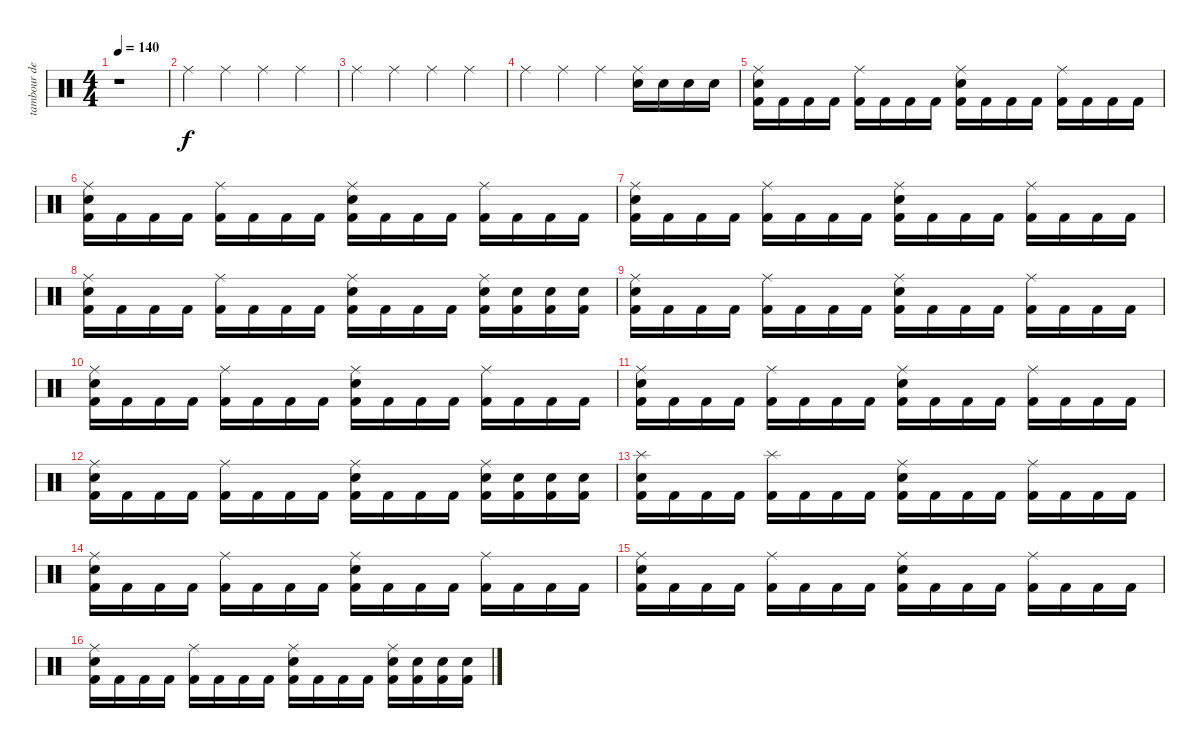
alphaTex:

\track ("tambour de guerre" "tambour de") {instrument percussion}
\staff {score}
\articulation defaults
\ts (4 4)
\tempo 140
\clef neutral
\ks c
r.1{dy f} |
"Ride (middle)".4 "Ride (middle)".4 "Ride (middle)".4 "Ride (middle)".4 |
"Ride (middle)".4 "Ride (middle)".4 "Ride (middle)".4 "Ride (middle)".4 |
"Ride (middle)".4 "Ride (middle)".4 "Ride (middle)".4 ("Snare (hit) 2" "Ride (middle)").16 "Snare (hit) 2".16 "Snare (hit) 2".16 "Snare (hit) 2".16 |
("Kick (hit) 2" "Snare (hit) 2" "Ride (middle)").16 "Kick (hit) 2".16 "Kick (hit) 2".16 "Kick (hit) 2".16 ("Kick (hit) 2" "Ride (middle)").16 "Kick (hit) 2".16 "Kick (hit) 2".16 "Kick (hit) 2".16 ("Kick (hit) 2" "Snare (hit) 2" "Ride (middle)").16 "Kick (hit) 2".16 "Kick (hit) 2".16 "Kick (hit) 2".16 ("Kick (hit) 2" "Ride (middle)").16 "Kick (hit) 2".16 "Kick (hit) 2".16 "Kick (hit) 2".16 |
("Kick (hit) 2" "Snare (hit) 2" "Ride (middle)").16 "Kick (hit) 2".16 "Kick (hit) 2".16 "Kick (hit) 2".16 ("Kick (hit) 2" "Ride (middle)").16 "Kick (hit) 2".16 "Kick (hit) 2".16 "Kick (hit) 2".16 ("Kick (hit) 2" "Snare (hit) 2" "Ride (middle)").16 "Kick (hit) 2".16 "Kick (hit) 2".16 "Kick (hit) 2".16 ("Kick (hit) 2" "Ride (middle)").16 "Kick (hit) 2".16 "Kick (hit) 2".16 "Kick (hit) 2".16 |
("Kick (hit) 2" "Snare (hit) 2" "Ride (middle)").16 "Kick (hit) 2".16 "Kick (hit) 2".16 "Kick (hit) 2".16 ("Kick (hit) 2" "Ride (middle)").16 "Kick (hit) 2".16 "Kick (hit) 2".16 "Kick (hit) 2".16 ("Kick (hit) 2" "Snare (hit) 2" "Ride (middle)").16 "Kick (hit) 2".16 "Kick (hit) 2".16 "Kick (hit) 2".16 ("Kick (hit) 2" "Ride (middle)").16 "Kick (hit) 2".16 "Kick (hit) 2".16 "Kick (hit) 2".16 |
("Kick (hit) 2" "Snare (hit) 2" "Ride (middle)").16 "Kick (hit) 2".16 "Kick (hit) 2".16 "Kick (hit) 2".16 ("Kick (hit) 2" "Ride (middle)").16 "Kick (hit) 2".16 "Kick (hit) 2".16 "Kick (hit) 2".16 ("Kick (hit) 2" "Snare (hit) 2" "Ride (middle)").16 "Kick (hit) 2".16 "Kick (hit) 2".16 "Kick (hit) 2".16 ("Kick (hit) 2" "Snare (hit) 2" "Ride (middle)").16 ("Kick (hit) 2" "Snare (hit) 2").16 ("Kick (hit) 2" "Electric Snare (hit)").16 ("Kick (hit) 2" "Electric Snare (hit)").16 |
("Kick (hit) 2" "Snare (hit) 2" "Ride (middle)").16 "Kick (hit) 2".16 "Kick (hit) 2".16 "Kick (hit) 2".16 ("Kick (hit) 2" "Ride (middle)").16 "Kick (hit) 2".16 "Kick (hit) 2".16 "Kick (hit) 2".16 ("Kick (hit) 2" "Snare (hit) 2" "Ride (middle)").16 "Kick (hit) 2".16 "Kick (hit) 2".16 "Kick (hit) 2".16 ("Kick (hit) 2" "Ride (middle)").16 "Kick (hit) 2".16 "Kick (hit) 2".16 "Kick (hit) 2".16 |
("Kick (hit) 2" "Snare (hit) 2" "Ride (middle)").16 "Kick (hit) 2".16 "Kick (hit) 2".16 "Kick (hit) 2".16 ("Kick (hit) 2" "Ride (middle)").16 "Kick (hit) 2".16 "Kick (hit) 2".16 "Kick (hit) 2".16 ("Kick (hit) 2" "Snare (hit) 2" "Ride (middle)").16 "Kick (hit) 2".16 "Kick (hit) 2".16 "Kick (hit) 2".16 ("Kick (hit) 2" "Ride (middle)").16 "Kick (hit) 2".16 "Kick (hit) 2".16 "Kick (hit) 2".16 |
("Kick (hit) 2" "Snare (hit) 2" "Ride (middle)").16 "Kick (hit) 2".16 "Kick (hit) 2".16 "Kick (hit) 2".16 ("Kick (hit) 2" "Ride (middle)").16 "Kick (hit) 2".16 "Kick (hit) 2".16 "Kick (hit) 2".16 ("Kick (hit) 2" "Snare (hit) 2" "Ride (middle)").16 "Kick (hit) 2".16 "Kick (hit) 2".16 "Kick (hit) 2".16 ("Kick (hit) 2" "Ride (middle)").16 "Kick (hit) 2".16 "Kick (hit) 2".16 "Kick (hit) 2".16 |
("Kick (hit) 2" "Snare (hit) 2" "Ride (middle)").16 "Kick (hit) 2".16 "Kick (hit) 2".16 "Kick (hit) 2".16 ("Kick (hit) 2" "Ride (middle)").16 "Kick (hit) 2".16 "Kick (hit) 2".16 "Kick (hit) 2".16 ("Kick (hit) 2" "Snare (hit) 2" "Ride (middle)").16 "Kick (hit) 2".16 "Kick (hit) 2".16 "Kick (hit) 2".16 ("Kick (hit) 2" "Snare (hit) 2" "Ride (middle)").16 ("Kick (hit) 2" "Snare (hit) 2").16 ("Kick (hit) 2" "Electric Snare (hit)").16 ("Kick (hit) 2" "Electric Snare (hit)").16 |
("Kick (hit) 2" "Snare (hit) 2" "Splash (hit)").16 "Kick (hit) 2".16 "Kick (hit) 2".16 "Kick (hit) 2".16 ("Kick (hit) 2" "Splash (hit)").16 "Kick (hit) 2".16 "Kick (hit) 2".16 "Kick (hit) 2".16 ("Kick (hit) 2" "Snare (hit) 2" "Ride (middle)").16 "Kick (hit) 2".16 "Kick (hit) 2".16 "Kick (hit) 2".16 ("Kick (hit) 2" "Ride (middle)").16 "Kick (hit) 2".16 "Kick (hit) 2".16 "Kick (hit) 2".16 |
("Kick (hit) 2" "Snare (hit) 2" "Ride (middle)").16 "Kick (hit) 2".16 "Kick (hit) 2".16 "Kick (hit) 2".16 ("Kick (hit) 2" "Ride (middle)").16 "Kick (hit) 2".16 "Kick (hit) 2".16 "Kick (hit) 2".16 ("Kick (hit) 2" "Snare (hit) 2" "Ride (middle)").16 "Kick (hit) 2".16 "Kick (hit) 2".16 "Kick (hit) 2".16 ("Kick (hit) 2" "Ride (middle)").16 "Kick (hit) 2".16 "Kick (hit) 2".16 "Kick (hit) 2".16 |
("Kick (hit) 2" "Snare (hit) 2" "Ride (middle)").16 "Kick (hit) 2".16 "Kick (hit) 2".16 "Kick (hit) 2".16 ("Kick (hit) 2" "Ride (middle)").16 "Kick (hit) 2".16 "Kick (hit) 2".16 "Kick (hit) 2".16 ("Kick (hit) 2" "Snare (hit) 2" "Ride (middle)").16 "Kick (hit) 2".16 "Kick (hit) 2".16 "Kick (hit) 2".16 ("Kick (hit) 2" "Ride (middle)").16 "Kick (hit) 2".16 "Kick (hit) 2".16 "Kick (hit) 2".16 |
("Kick (hit) 2" "Snare (hit) 2" "Ride (middle)").16 "Kick (hit) 2".16 "Kick (hit) 2".16 "Kick (hit) 2".16 ("Kick (hit) 2" "Ride (middle)").16 "Kick (hit) 2".16 "Kick (hit) 2".16 "Kick (hit) 2".16 ("Kick (hit) 2" "Snare (hit) 2" "Ride (middle)").16 "Kick (hit) 2".16 "Kick (hit) 2".16 "Kick (hit) 2".16 ("Kick (hit) 2" "Snare (hit) 2" "Ride (middle)").16 ("Kick (hit) 2" "Snare (hit) 2").16 ("Kick (hit) 2" "Electric Snare (hit)").16 ("Kick (hit) 2" "Electric Snare (hit)").16
